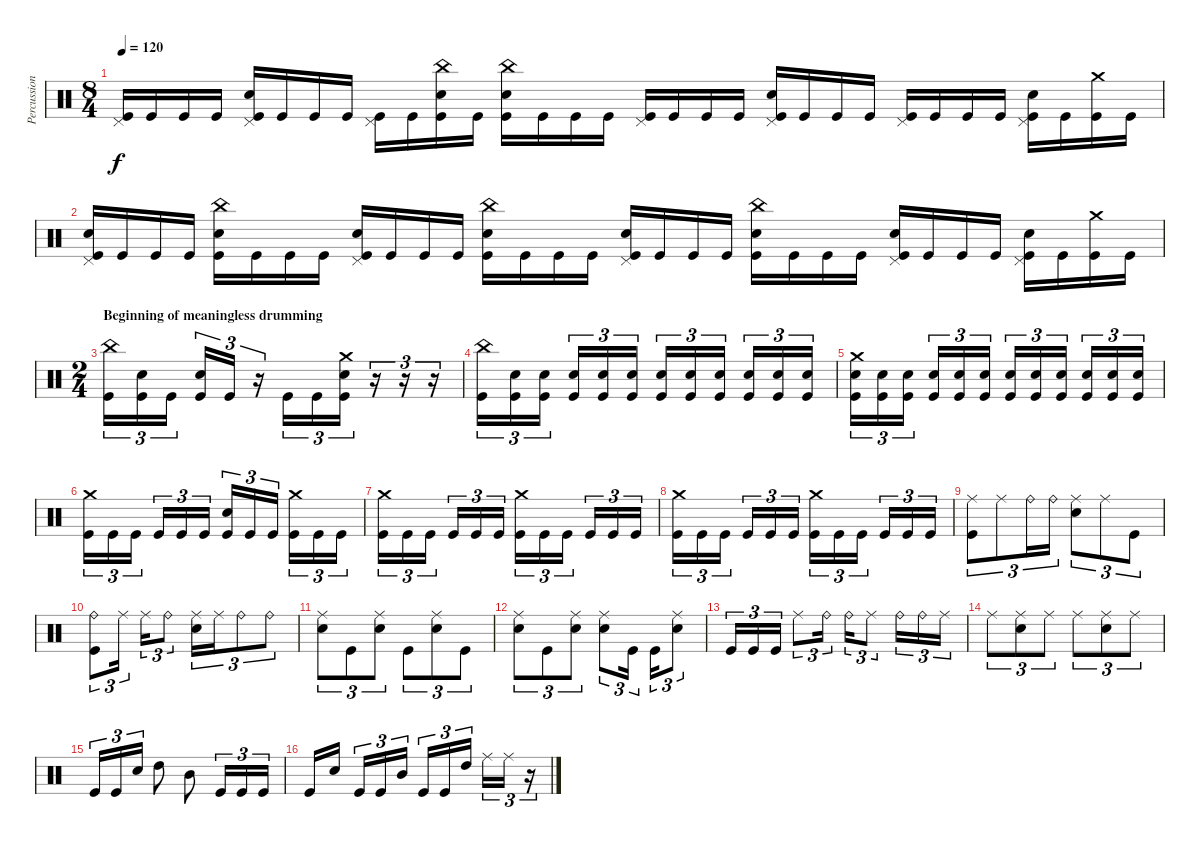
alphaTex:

\track ("Percussioni" "Percussion") {instrument percussion}
\staff {score}
\articulation defaults
\ts (8 4)
\tempo 120
\clef neutral
\ks c
("Kick (hit)" "Pedal Hi-Hat (hit)").16{dy f} "Kick (hit)".16 "Kick (hit)".16 "Kick (hit)".16 ("Kick (hit)" "Snare (hit) 2" "Pedal Hi-Hat (hit)").16 "Kick (hit)".16 "Kick (hit)".16 "Kick (hit)".16 ("Kick (hit)" "Pedal Hi-Hat (hit)").16 "Kick (hit)".16 ("Kick (hit)" "Snare (hit) 2" "China (hit)").16 "Kick (hit)".16 ("Kick (hit)" "Snare (hit) 2" "China (hit)").16 "Kick (hit)".16 "Kick (hit)".16 "Kick (hit)".16 ("Kick (hit)" "Pedal Hi-Hat (hit)").16 "Kick (hit)".16 "Kick (hit)".16 "Kick (hit)".16 ("Kick (hit)" "Snare (hit) 2" "Pedal Hi-Hat (hit)").16 "Kick (hit)".16 "Kick (hit)".16 "Kick (hit)".16 ("Kick (hit)" "Pedal Hi-Hat (hit)").16 "Kick (hit)".16 "Kick (hit)".16 "Kick (hit)".16 ("Kick (hit)" "Snare (hit) 2" "Pedal Hi-Hat (hit)").16 "Kick (hit)".16 ("Kick (hit)" "Crash medium (hit)").16 "Kick (hit)".16 |
("Kick (hit)" "Snare (hit) 2" "Pedal Hi-Hat (hit)").16 "Kick (hit)".16 "Kick (hit)".16 "Kick (hit)".16 ("Kick (hit)" "Snare (hit) 2" "China (hit)").16 "Kick (hit)".16 "Kick (hit)".16 "Kick (hit)".16 ("Kick (hit)" "Snare (hit) 2" "Pedal Hi-Hat (hit)").16 "Kick (hit)".16 "Kick (hit)".16 "Kick (hit)".16 ("Kick (hit)" "Snare (hit) 2" "China (hit)").16 "Kick (hit)".16 "Kick (hit)".16 "Kick (hit)".16 ("Kick (hit)" "Snare (hit) 2" "Pedal Hi-Hat (hit)").16 "Kick (hit)".16 "Kick (hit)".16 "Kick (hit)".16 ("Kick (hit)" "Snare (hit) 2" "China (hit)").16 "Kick (hit)".16 "Kick (hit)".16 "Kick (hit)".16 ("Kick (hit)" "Snare (hit) 2" "Pedal Hi-Hat (hit)").16 "Kick (hit)".16 "Kick (hit)".16 "Kick (hit)".16 ("Kick (hit)" "Snare (hit) 2" "Pedal Hi-Hat (hit)").16 "Kick (hit)".16 ("Kick (hit)" "Crash medium (hit)").16 "Kick (hit)".16 |
\ts (2 4)
\section ("" "Beginning of meaningless drumming")
("Kick (hit)" "China (hit)").16{tu (3 2)} ("Kick (hit)" "Snare (hit) 2").16{tu (3 2)} "Kick (hit)".16{tu (3 2)} ("Kick (hit)" "Snare (hit) 2").16{tu (3 2)} "Kick (hit)".16{tu (3 2)} r.16{tu (3 2)} "Kick (hit)".16{tu (3 2)} "Kick (hit)".16{tu (3 2)} ("Kick (hit)" "Snare (hit) 2" "Crash medium (hit)").16{tu (3 2)} r.16{tu (3 2)} r.16{tu (3 2)} r.16{tu (3 2)} |
("Kick (hit)" "China (hit)").16{tu (3 2)} ("Kick (hit)" "Snare (hit) 2").16{tu (3 2)} ("Kick (hit)" "Snare (hit) 2").16{tu (3 2)} ("Kick (hit)" "Snare (hit) 2").16{tu (3 2)} ("Kick (hit)" "Snare (hit) 2").16{tu (3 2)} ("Kick (hit)" "Snare (hit) 2").16{tu (3 2)} ("Kick (hit)" "Snare (hit) 2").16{tu (3 2)} ("Kick (hit)" "Snare (hit) 2").16{tu (3 2)} ("Kick (hit)" "Snare (hit) 2").16{tu (3 2)} ("Kick (hit)" "Snare (hit) 2").16{tu (3 2)} ("Kick (hit)" "Snare (hit) 2").16{tu (3 2)} ("Kick (hit)" "Snare (hit) 2").16{tu (3 2)} |
("Kick (hit)" "Snare (hit) 2" "Crash medium (hit)").16{tu (3 2)} ("Kick (hit)" "Snare (hit) 2").16{tu (3 2)} ("Kick (hit)" "Snare (hit) 2").16{tu (3 2)} ("Kick (hit)" "Snare (hit) 2").16{tu (3 2)} ("Kick (hit)" "Snare (hit) 2").16{tu (3 2)} ("Kick (hit)" "Snare (hit) 2").16{tu (3 2)} ("Kick (hit)" "Snare (hit) 2").16{tu (3 2)} ("Kick (hit)" "Snare (hit) 2").16{tu (3 2)} ("Kick (hit)" "Snare (hit) 2").16{tu (3 2)} ("Kick (hit)" "Snare (hit) 2").16{tu (3 2)} ("Kick (hit)" "Snare (hit) 2").16{tu (3 2)} ("Kick (hit)" "Snare (hit) 2").16{tu (3 2)} |
("Kick (hit)" "Crash medium (hit)").16{tu (3 2)} "Kick (hit)".16{tu (3 2)} "Kick (hit)".16{tu (3 2)} "Kick (hit)".16{tu (3 2)} "Kick (hit)".16{tu (3 2)} "Kick (hit)".16{tu (3 2)} ("Kick (hit)" "Snare (hit) 2").16{tu (3 2)} "Kick (hit)".16{tu (3 2)} "Kick (hit)".16{tu (3 2)} ("Kick (hit)" "Crash medium (hit)").16{tu (3 2)} "Kick (hit)".16{tu (3 2)} "Kick (hit)".16{tu (3 2)} |
("Kick (hit)" "Crash medium (hit)").16{tu (3 2)} "Kick (hit)".16{tu (3 2)} "Kick (hit)".16{tu (3 2)} "Kick (hit)".16{tu (3 2)} "Kick (hit)".16{tu (3 2)} "Kick (hit)".16{tu (3 2)} ("Kick (hit)" "Crash medium (hit)").16{tu (3 2)} "Kick (hit)".16{tu (3 2)} "Kick (hit)".16{tu (3 2)} "Kick (hit)".16{tu (3 2)} "Kick (hit)".16{tu (3 2)} "Kick (hit)".16{tu (3 2)} |
("Kick (hit)" "Crash medium (hit)").16{tu (3 2)} "Kick (hit)".16{tu (3 2)} "Kick (hit)".16{tu (3 2)} "Kick (hit)".16{tu (3 2)} "Kick (hit)".16{tu (3 2)} "Kick (hit)".16{tu (3 2)} ("Kick (hit)" "Crash medium (hit)").16{tu (3 2)} "Kick (hit)".16{tu (3 2)} "Kick (hit)".16{tu (3 2)} "Kick (hit)".16{tu (3 2)} "Kick (hit)".16{tu (3 2)} "Kick (hit)".16{tu (3 2)} |
("Kick (hit)" "Ride (middle)").8{tu (3 2)} "Ride (middle)".8{tu (3 2)} "Ride (bell)".16{tu (3 2)} "Ride (bell)".16{tu (3 2)} ("Snare (hit) 2" "Ride (middle)").8{tu (3 2)} "Ride (middle)".8{tu (3 2)} "Kick (hit)".8{tu (3 2)} |
("Kick (hit)" "Ride (bell)").8{tu (3 2)} "Ride (middle)".16{tu (3 2)} "Ride (middle)".16{tu (3 2)} "Ride (bell)".8{tu (3 2)} ("Snare (hit) 2" "Ride (middle)").16{tu (3 2)} "Ride (middle)".16{tu (3 2)} "Ride (bell)".8{tu (3 2)} "Ride (bell)".8{tu (3 2)} |
("Snare (hit) 2" "Ride (middle)").8{tu (3 2)} "Kick (hit)".8{tu (3 2)} ("Snare (hit) 2" "Ride (middle)").8{tu (3 2)} "Kick (hit)".8{tu (3 2)} ("Snare (hit) 2" "Ride (middle)").8{tu (3 2)} "Kick (hit)".8{tu (3 2)} |
("Snare (hit) 2" "Ride (middle)").8{tu (3 2)} "Kick (hit)".8{tu (3 2)} ("Snare (hit) 2" "Ride (middle)").8{tu (3 2)} ("Snare (hit) 2" "Ride (middle)").8{tu (3 2)} "Kick (hit)".16{tu (3 2)} "Kick (hit)".16{tu (3 2)} ("Snare (hit) 2" "Ride (middle)").8{tu (3 2)} |
"Kick (hit)".16{tu (3 2)} "Kick (hit)".16{tu (3 2)} "Kick (hit)".16{tu (3 2)} "Ride (middle)".8{tu (3 2)} "Ride (bell)".16{tu (3 2)} "Ride (bell)".16{tu (3 2)} "Ride (middle)".8{tu (3 2)} "Ride (bell)".16{tu (3 2)} "Ride (bell)".16{tu (3 2)} "Ride (middle)".16{tu (3 2)} |
"Ride (middle)".8{tu (3 2)} ("Snare (hit) 2" "Ride (middle)").8{tu (3 2)} "Ride (middle)".8{tu (3 2)} "Ride (middle)".8{tu (3 2)} ("Snare (hit) 2" "Ride (middle)").8{tu (3 2)} "Ride (middle)".8{tu (3 2)} |
"Kick (hit)".16{tu (3 2)} "Kick (hit)".16{tu (3 2)} "Snare (hit) 2".16{tu (3 2)} "High Tom (hit)".8 "Mid Tom (hit)".8 "Kick (hit)".16{tu (3 2)} "Kick (hit)".16{tu (3 2)} "Kick (hit)".16{tu (3 2)} |
"Kick (hit)".16 "Snare (hit) 2".16 "Kick (hit)".16{tu (3 2)} "Kick (hit)".16{tu (3 2)} "Mid Tom (hit)".16{tu (3 2)} "Kick (hit)".16{tu (3 2)} "Kick (hit)".16{tu (3 2)} "High Tom (hit)".16{tu (3 2)} "Ride (middle)".16{tu (3 2)} "Ride (middle)".16{tu (3 2)} r.16{tu (3 2)}
